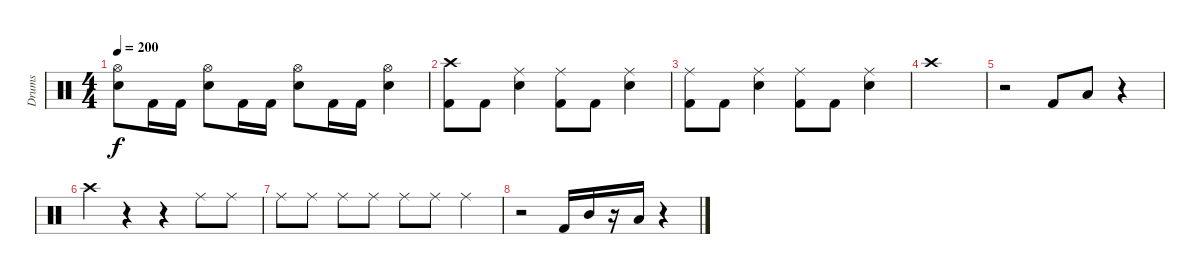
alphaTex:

\track ("Drums" "Drums") {instrument percussion}
\staff {score}
\articulation defaults
\ts (4 4)
\tempo 200
\clef neutral
\ks c
("Hi-Hat (open)" "Electric Snare (hit)").8{dy f} "Kick (hit) 2".16 "Kick (hit) 2".16 ("Hi-Hat (open)" "Electric Snare (hit)").8 "Kick (hit) 2".16 "Kick (hit) 2".16 ("Hi-Hat (open)" "Electric Snare (hit)").8 "Kick (hit) 2".16 "Kick (hit) 2".16 ("Hi-Hat (open)" "Electric Snare (hit)").4 |
("Crash high (hit)" "Kick (hit) 2").8 "Kick (hit) 2".8 ("Ride (middle)" "Electric Snare (hit)").4 ("Ride (middle)" "Kick (hit) 2").8 "Kick (hit) 2".8 ("Ride (middle)" "Electric Snare (hit)").4 |
("Ride (middle)" "Kick (hit) 2").8 "Kick (hit) 2".8 ("Ride (middle)" "Electric Snare (hit)").4 ("Ride (middle)" "Kick (hit) 2").8 "Kick (hit) 2".8 ("Ride (middle)" "Electric Snare (hit)").4 |
"Crash high (hit)".1 |
r.2 "Kick (hit) 2".8 "Low Tom (hit)".8 r.4 |
"Crash high (hit)".4 r.4 r.4 "Ride (middle)".8 "Ride (middle)".8 |
"Ride (middle)".8 "Ride (middle)".8 "Ride (middle)".8 "Ride (middle)".8 "Ride (middle)".8 "Ride (middle)".8 "Ride (middle)".4 |
r.2 "Kick (hit) 2".16 "Mid Tom (hit)".16 r.16 "Low Tom (hit)".16 r.4
